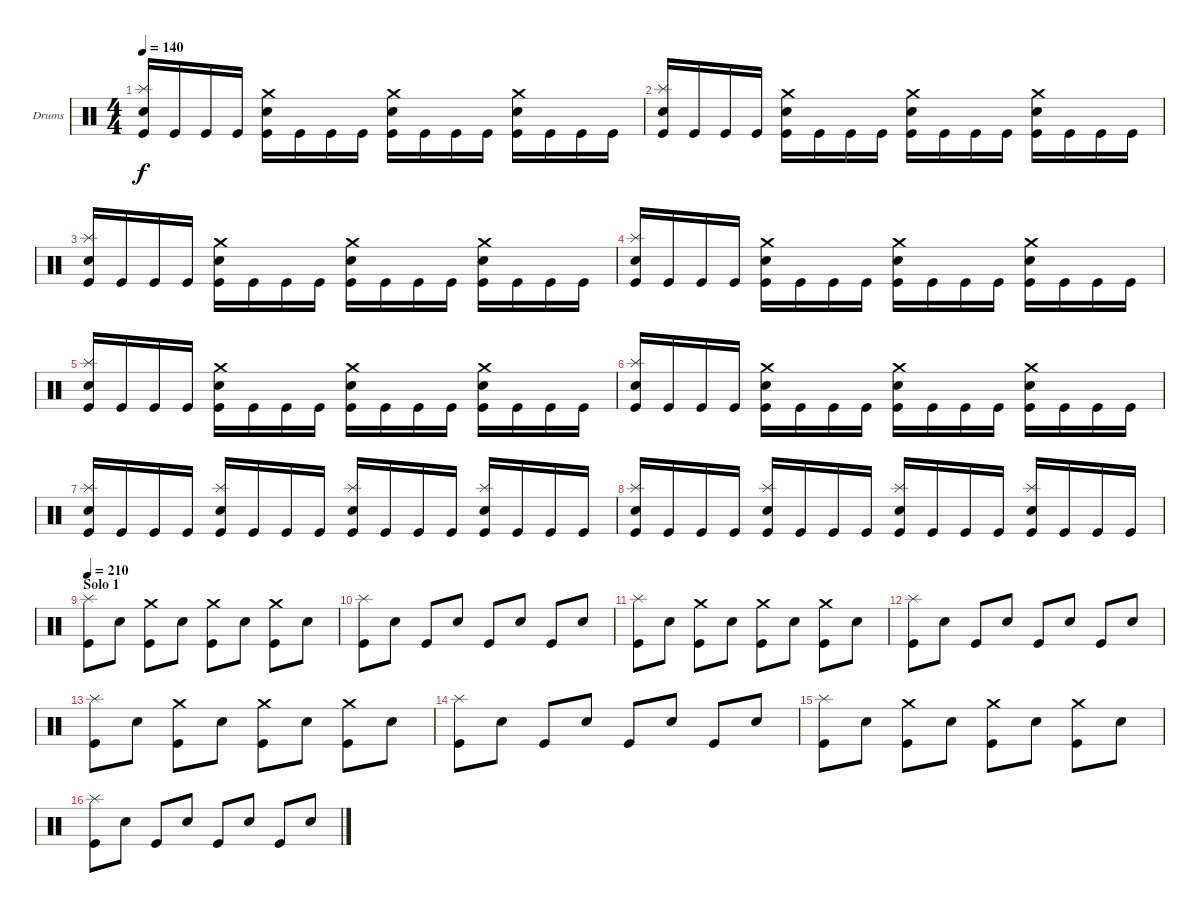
\defaultSystemsLayout 4
\bracketExtendMode groupsimilarinstruments
\firstSystemTrackNameOrientation horizontal
\otherSystemsTrackNameOrientation horizontal
\track ("Ventor" "Drums") {instrument percussion}
\staff {score}
\articulation defaults
\ts (4 4)
\tempo 140
\clef neutral
\scale
0.5
\ks c
("Kick (hit)" "Splash (hit)" "Snare (hit) 2").16{dy f} "Kick (hit)".16 "Kick (hit)".16 "Kick (hit)".16 ("Kick (hit)" "Crash medium (hit)" "Snare (hit) 2").16 "Kick (hit)".16 "Kick (hit)".16 "Kick (hit)".16 ("Kick (hit)" "Crash medium (hit)" "Snare (hit) 2").16 "Kick (hit)".16 "Kick (hit)".16 "Kick (hit)".16 ("Kick (hit)" "Crash medium (hit)" "Snare (hit) 2").16 "Kick (hit)".16 "Kick (hit)".16 "Kick (hit)".16 |
\scale
0.5 ("Kick (hit)" "Splash (hit)" "Snare (hit) 2").16 "Kick (hit)".16 "Kick (hit)".16 "Kick (hit)".16 ("Kick (hit)" "Crash medium (hit)" "Snare (hit) 2").16 "Kick (hit)".16 "Kick (hit)".16 "Kick (hit)".16 ("Kick (hit)" "Crash medium (hit)" "Snare (hit) 2").16 "Kick (hit)".16 "Kick (hit)".16 "Kick (hit)".16 ("Kick (hit)" "Crash medium (hit)" "Snare (hit) 2").16 "Kick (hit)".16 "Kick (hit)".16 "Kick (hit)".16 |
\scale
0.5 ("Kick (hit)" "Splash (hit)" "Snare (hit) 2").16 "Kick (hit)".16 "Kick (hit)".16 "Kick (hit)".16 ("Kick (hit)" "Crash medium (hit)" "Snare (hit) 2").16 "Kick (hit)".16 "Kick (hit)".16 "Kick (hit)".16 ("Kick (hit)" "Crash medium (hit)" "Snare (hit) 2").16 "Kick (hit)".16 "Kick (hit)".16 "Kick (hit)".16 ("Kick (hit)" "Crash medium (hit)" "Snare (hit) 2").16 "Kick (hit)".16 "Kick (hit)".16 "Kick (hit)".16 |
\scale
0.5 ("Kick (hit)" "Splash (hit)" "Snare (hit) 2").16 "Kick (hit)".16 "Kick (hit)".16 "Kick (hit)".16 ("Kick (hit)" "Crash medium (hit)" "Snare (hit) 2").16 "Kick (hit)".16 "Kick (hit)".16 "Kick (hit)".16 ("Kick (hit)" "Crash medium (hit)" "Snare (hit) 2").16 "Kick (hit)".16 "Kick (hit)".16 "Kick (hit)".16 ("Kick (hit)" "Crash medium (hit)" "Snare (hit) 2").16 "Kick (hit)".16 "Kick (hit)".16 "Kick (hit)".16 |
\scale
0.5 ("Kick (hit)" "Splash (hit)" "Snare (hit) 2").16 "Kick (hit)".16 "Kick (hit)".16 "Kick (hit)".16 ("Kick (hit)" "Crash medium (hit)" "Snare (hit) 2").16 "Kick (hit)".16 "Kick (hit)".16 "Kick (hit)".16 ("Kick (hit)" "Crash medium (hit)" "Snare (hit) 2").16 "Kick (hit)".16 "Kick (hit)".16 "Kick (hit)".16 ("Kick (hit)" "Crash medium (hit)" "Snare (hit) 2").16 "Kick (hit)".16 "Kick (hit)".16 "Kick (hit)".16 |
\scale
0.5 ("Kick (hit)" "Splash (hit)" "Snare (hit) 2").16 "Kick (hit)".16 "Kick (hit)".16 "Kick (hit)".16 ("Kick (hit)" "Crash medium (hit)" "Snare (hit) 2").16 "Kick (hit)".16 "Kick (hit)".16 "Kick (hit)".16 ("Kick (hit)" "Crash medium (hit)" "Snare (hit) 2").16 "Kick (hit)".16 "Kick (hit)".16 "Kick (hit)".16 ("Kick (hit)" "Crash medium (hit)" "Snare (hit) 2").16 "Kick (hit)".16 "Kick (hit)".16 "Kick (hit)".16 |
\scale
0.5 ("Kick (hit)" "Splash (hit)" "Snare (hit) 2").16 "Kick (hit)".16 "Kick (hit)".16 "Kick (hit)".16 ("Kick (hit)" "Splash (hit)" "Snare (hit) 2").16 "Kick (hit)".16 "Kick (hit)".16 "Kick (hit)".16 ("Kick (hit)" "Splash (hit)" "Snare (hit) 2").16 "Kick (hit)".16 "Kick (hit)".16 "Kick (hit)".16 ("Kick (hit)" "Splash (hit)" "Snare (hit) 2").16 "Kick (hit)".16 "Kick (hit)".16 "Kick (hit)".16 |
\scale
0.5 ("Kick (hit)" "Splash (hit)" "Snare (hit) 2").16 "Kick (hit)".16 "Kick (hit)".16 "Kick (hit)".16 ("Kick (hit)" "Splash (hit)" "Snare (hit) 2").16 "Kick (hit)".16 "Kick (hit)".16 "Kick (hit)".16 ("Kick (hit)" "Splash (hit)" "Snare (hit) 2").16 "Kick (hit)".16 "Kick (hit)".16 "Kick (hit)".16 ("Kick (hit)" "Splash (hit)" "Snare (hit) 2").16 "Kick (hit)".16 "Kick (hit)".16 "Kick (hit)".16 |
\section ("" "Solo 1")
\tempo 210
\scale
0.5 ("Kick (hit)" "Splash (hit)").8 "Snare (hit) 2".8 ("Kick (hit)" "Crash medium (hit)").8 "Snare (hit) 2".8 ("Kick (hit)" "Crash medium (hit)").8 "Snare (hit) 2".8 ("Kick (hit)" "Crash medium (hit)").8 "Snare (hit) 2".8 |
\scale
0.5 ("Kick (hit)" "Splash (hit)").8 "Snare (hit) 2".8 "Kick (hit)".8 "Snare (hit) 2".8 "Kick (hit)".8 "Snare (hit) 2".8 "Kick (hit)".8 "Snare (hit) 2".8 |
\scale
0.5 ("Kick (hit)" "Splash (hit)").8 "Snare (hit) 2".8 ("Kick (hit)" "Crash medium (hit)").8 "Snare (hit) 2".8 ("Kick (hit)" "Crash medium (hit)").8 "Snare (hit) 2".8 ("Kick (hit)" "Crash medium (hit)").8 "Snare (hit) 2".8 |
\scale
0.5 ("Kick (hit)" "Splash (hit)").8 "Snare (hit) 2".8 "Kick (hit)".8 "Snare (hit) 2".8 "Kick (hit)".8 "Snare (hit) 2".8 "Kick (hit)".8 "Snare (hit) 2".8 |
\scale
0.5 ("Kick (hit)" "Splash (hit)").8 "Snare (hit) 2".8 ("Kick (hit)" "Crash medium (hit)").8 "Snare (hit) 2".8 ("Kick (hit)" "Crash medium (hit)").8 "Snare (hit) 2".8 ("Kick (hit)" "Crash medium (hit)").8 "Snare (hit) 2".8 |
\scale
0.5 ("Kick (hit)" "Splash (hit)").8 "Snare (hit) 2".8 "Kick (hit)".8 "Snare (hit) 2".8 "Kick (hit)".8 "Snare (hit) 2".8 "Kick (hit)".8 "Snare (hit) 2".8 |
\scale
0.5 ("Kick (hit)" "Splash (hit)").8 "Snare (hit) 2".8 ("Kick (hit)" "Crash medium (hit)").8 "Snare (hit) 2".8 ("Kick (hit)" "Crash medium (hit)").8 "Snare (hit) 2".8 ("Kick (hit)" "Crash medium (hit)").8 "Snare (hit) 2".8 |
\scale
0.5 ("Kick (hit)" "Splash (hit)").8 "Snare (hit) 2".8 "Kick (hit)".8 "Snare (hit) 2".8 "Kick (hit)".8 "Snare (hit) 2".8 "Kick (hit)".8 "Snare (hit) 2".8
